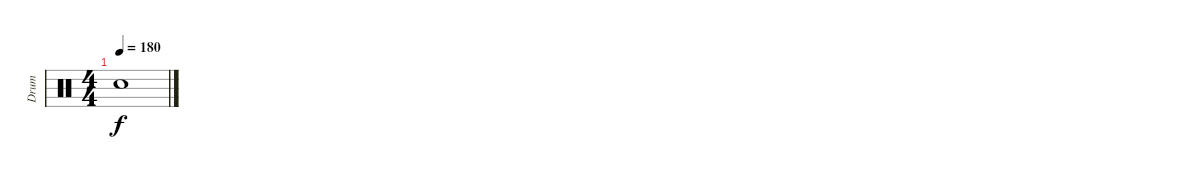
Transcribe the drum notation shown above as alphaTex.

\track ("Drum" "Drum") {instrument percussion}
\staff {score}
\articulation defaults
\ts (4 4)
\tempo 180
\clef neutral
\ks c "Snare (hit)"{t}.1{dy f}
